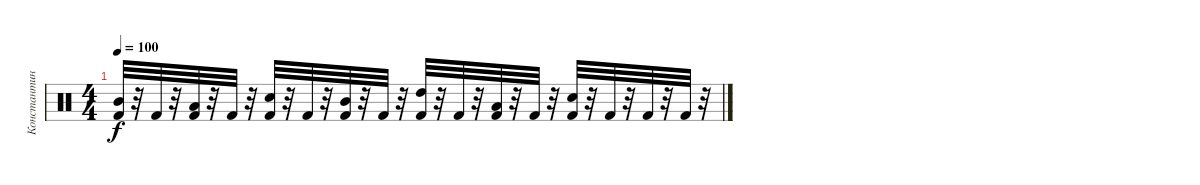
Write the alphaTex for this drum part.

\track ("Константин \"Салян\" Сальников" "Константин") {instrument percussion}
\staff {score}
\articulation defaults
\ts (4 4)
\tempo 100
\clef neutral
\ks c
("Mid Tom (hit)" "Kick (hit) 2").32{dy f} r.32 "Kick (hit) 2".32 r.32 ("Low Tom (hit)" "Kick (hit) 2").32 r.32 "Kick (hit) 2".32 r.32 ("Electric Snare (hit)" "Kick (hit) 2").32 r.32 "Kick (hit) 2".32 r.32 ("Mid Tom (hit)" "Kick (hit) 2").32 r.32 "Kick (hit) 2".32 r.32 ("High Tom (hit)" "Kick (hit) 2").32 r.32 "Kick (hit) 2".32 r.32 ("Low Tom (hit)" "Kick (hit) 2").32 r.32 "Kick (hit) 2".32 r.32 ("Electric Snare (hit)" "Kick (hit) 2").32 r.32 "Kick (hit) 2".32 r.32 "Kick (hit) 2".32 r.32 "Kick (hit) 2".32 r.32
